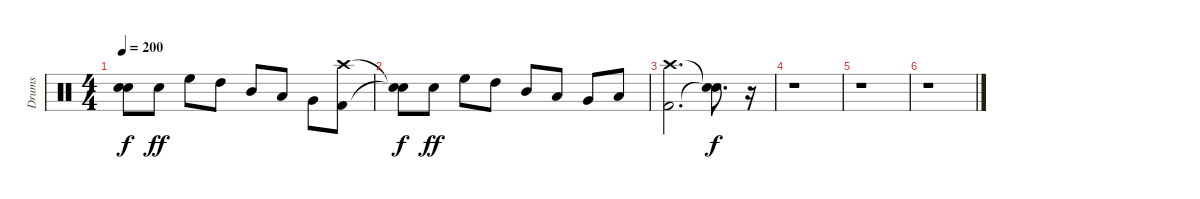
\track ("Drums" "Drums") {instrument percussion}
\staff {score}
\articulation defaults
\ts (4 4)
\tempo 200
\clef neutral
\ks c
("Snare (hit)"{t} "Snare (hit)"{t}).8{dy f} "Snare (hit) 2".8{dy ff} "High Floor Tom (hit)".8 "High Tom (hit)".8 "Mid Tom (hit)".8 "Low Tom (hit)".8 "Very Low Tom (hit)".8 ("Kick (hit) 2" "Crash high (hit)").8 |
("Snare (hit)"{t} "Snare (hit)"{t}).8{dy f} "Snare (hit) 2".8{dy ff} "High Floor Tom (hit)".8 "High Tom (hit)".8 "Mid Tom (hit)".8 "Low Tom (hit)".8 "Very Low Tom (hit)".8 "Low Floor Tom (hit)".8 |
("Kick (hit) 2" "Crash high (hit)").2{d} ("Snare (hit)"{t} "Snare (hit)"{t}).8{d dy f} r.16 |
r.1 |
r.1 |
r.1
